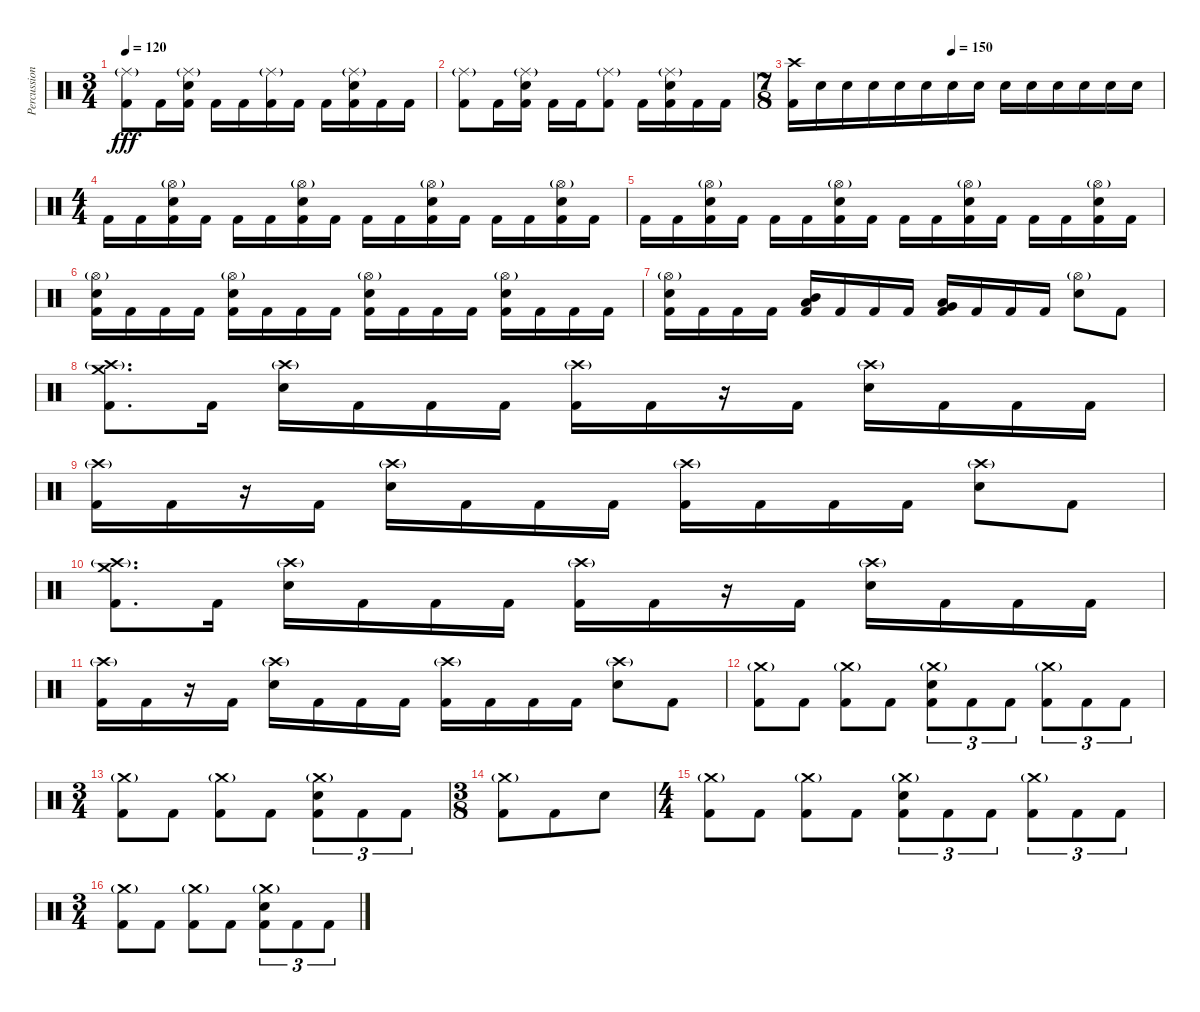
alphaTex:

\track ("Percussion" "Percussion") {instrument percussion}
\staff {score}
\articulation defaults
\ts (3 4)
\tempo 120
\clef neutral
\ks c
("Ride (middle)"{g} "Kick (hit) 2").8{dy fff} "Kick (hit) 2".16 ("Ride (middle)"{g} "Electric Snare (hit)" "Kick (hit) 2").16 "Kick (hit) 2".16 "Kick (hit) 2".16 ("Ride (middle)"{g} "Kick (hit) 2").16 "Kick (hit) 2".16 "Kick (hit) 2".16 ("Ride (middle)"{g} "Electric Snare (hit)" "Kick (hit) 2").16 "Kick (hit) 2".16 "Kick (hit) 2".16 |
("Ride (middle)"{g} "Kick (hit) 2").8 "Kick (hit) 2".16 ("Ride (middle)"{g} "Electric Snare (hit)" "Kick (hit) 2").16 "Kick (hit) 2".16 "Kick (hit) 2".16 ("Ride (middle)"{g} "Kick (hit) 2").8 "Kick (hit) 2".16 ("Ride (middle)"{g} "Electric Snare (hit)" "Kick (hit) 2").16 "Kick (hit) 2".16 "Kick (hit) 2".16 |
\ts (7 8)
\tempo (150 0.42857142857142855)
("Crash high (hit)" "Kick (hit) 2").16 "Electric Snare (hit)".16 "Electric Snare (hit)".16 "Electric Snare (hit)".16 "Electric Snare (hit)".16 "Electric Snare (hit)".16 "Electric Snare (hit)".16 "Electric Snare (hit)".16 "Electric Snare (hit)".16 "Electric Snare (hit)".16 "Electric Snare (hit)".16 "Electric Snare (hit)".16 "Electric Snare (hit)".16 "Electric Snare (hit)".16 |
\ts (4 4)
"Kick (hit) 2".16 "Kick (hit) 2".16 ("Hi-Hat (open)"{g} "Electric Snare (hit)" "Kick (hit) 2").16 "Kick (hit) 2".16 "Kick (hit) 2".16 "Kick (hit) 2".16 ("Hi-Hat (open)"{g} "Electric Snare (hit)" "Kick (hit) 2").16 "Kick (hit) 2".16 "Kick (hit) 2".16 "Kick (hit) 2".16 ("Hi-Hat (open)"{g} "Electric Snare (hit)" "Kick (hit) 2").16 "Kick (hit) 2".16 "Kick (hit) 2".16 "Kick (hit) 2".16 ("Hi-Hat (open)"{g} "Electric Snare (hit)" "Kick (hit) 2").16 "Kick (hit) 2".16 |
"Kick (hit) 2".16 "Kick (hit) 2".16 ("Hi-Hat (open)"{g} "Electric Snare (hit)" "Kick (hit) 2").16 "Kick (hit) 2".16 "Kick (hit) 2".16 "Kick (hit) 2".16 ("Hi-Hat (open)"{g} "Electric Snare (hit)" "Kick (hit) 2").16 "Kick (hit) 2".16 "Kick (hit) 2".16 "Kick (hit) 2".16 ("Hi-Hat (open)"{g} "Electric Snare (hit)" "Kick (hit) 2").16 "Kick (hit) 2".16 "Kick (hit) 2".16 "Kick (hit) 2".16 ("Hi-Hat (open)"{g} "Electric Snare (hit)" "Kick (hit) 2").16 "Kick (hit) 2".16 |
("Hi-Hat (open)"{g} "Electric Snare (hit)" "Kick (hit) 2").16 "Kick (hit) 2".16 "Kick (hit) 2".16 "Kick (hit) 2".16 ("Hi-Hat (open)"{g} "Electric Snare (hit)" "Kick (hit) 2").16 "Kick (hit) 2".16 "Kick (hit) 2".16 "Kick (hit) 2".16 ("Hi-Hat (open)"{g} "Electric Snare (hit)" "Kick (hit) 2").16 "Kick (hit) 2".16 "Kick (hit) 2".16 "Kick (hit) 2".16 ("Hi-Hat (open)"{g} "Electric Snare (hit)" "Kick (hit) 2").16 "Kick (hit) 2".16 "Kick (hit) 2".16 "Kick (hit) 2".16 |
("Hi-Hat (open)"{g} "Electric Snare (hit)" "Kick (hit) 2").16 "Kick (hit) 2".16 "Kick (hit) 2".16 "Kick (hit) 2".16 ("Mid Tom (hit)" "Low Tom (hit)" "Kick (hit) 2").16 "Kick (hit) 2".16 "Kick (hit) 2".16 "Kick (hit) 2".16 ("Low Tom (hit)" "Very Low Tom (hit)" "Kick (hit) 2").16 "Kick (hit) 2".16 "Kick (hit) 2".16 "Kick (hit) 2".16 ("Hi-Hat (open)"{g} "Electric Snare (hit)").8 "Kick (hit) 2".8 |
("Crash high (hit)"{g} "Crash medium (hit)" "Kick (hit) 2").8{d} "Kick (hit) 2".16 ("Crash high (hit)"{g} "Electric Snare (hit)").16 "Kick (hit) 2".16 "Kick (hit) 2".16 "Kick (hit) 2".16 ("Crash high (hit)"{g} "Kick (hit) 2").16 "Kick (hit) 2".16 r.16 "Kick (hit) 2".16 ("Crash high (hit)"{g} "Electric Snare (hit)").16 "Kick (hit) 2".16 "Kick (hit) 2".16 "Kick (hit) 2".16 |
("Crash high (hit)"{g} "Kick (hit) 2").16 "Kick (hit) 2".16 r.16 "Kick (hit) 2".16 ("Crash high (hit)"{g} "Electric Snare (hit)").16 "Kick (hit) 2".16 "Kick (hit) 2".16 "Kick (hit) 2".16 ("Crash high (hit)"{g} "Kick (hit) 2").16 "Kick (hit) 2".16 "Kick (hit) 2".16 "Kick (hit) 2".16 ("Crash high (hit)"{g} "Electric Snare (hit)").8 "Kick (hit) 2".8 |
("Crash high (hit)"{g} "Crash medium (hit)" "Kick (hit) 2").8{d} "Kick (hit) 2".16 ("Crash high (hit)"{g} "Electric Snare (hit)").16 "Kick (hit) 2".16 "Kick (hit) 2".16 "Kick (hit) 2".16 ("Crash high (hit)"{g} "Kick (hit) 2").16 "Kick (hit) 2".16 r.16 "Kick (hit) 2".16 ("Crash high (hit)"{g} "Electric Snare (hit)").16 "Kick (hit) 2".16 "Kick (hit) 2".16 "Kick (hit) 2".16 |
("Crash high (hit)"{g} "Kick (hit) 2").16 "Kick (hit) 2".16 r.16 "Kick (hit) 2".16 ("Crash high (hit)"{g} "Electric Snare (hit)").16 "Kick (hit) 2".16 "Kick (hit) 2".16 "Kick (hit) 2".16 ("Crash high (hit)"{g} "Kick (hit) 2").16 "Kick (hit) 2".16 "Kick (hit) 2".16 "Kick (hit) 2".16 ("Crash high (hit)"{g} "Electric Snare (hit)").8 "Kick (hit) 2".8 |
("Crash medium (hit)"{g} "Kick (hit) 2").8 "Kick (hit) 2".8 ("Crash medium (hit)"{g} "Kick (hit) 2").8 "Kick (hit) 2".8 ("Crash medium (hit)"{g} "Electric Snare (hit)" "Kick (hit) 2").8{tu (3 2)} "Kick (hit) 2".8{tu (3 2)} "Kick (hit) 2".8{tu (3 2)} ("Crash medium (hit)"{g} "Kick (hit) 2").8{tu (3 2)} "Kick (hit) 2".8{tu (3 2)} "Kick (hit) 2".8{tu (3 2)} |
\ts (3 4)
("Crash medium (hit)"{g} "Kick (hit) 2").8 "Kick (hit) 2".8 ("Crash medium (hit)"{g} "Kick (hit) 2").8 "Kick (hit) 2".8 ("Crash medium (hit)"{g} "Electric Snare (hit)" "Kick (hit) 2").8{tu (3 2)} "Kick (hit) 2".8{tu (3 2)} "Kick (hit) 2".8{tu (3 2)} |
\ts (3 8)
("Crash medium (hit)"{g} "Kick (hit) 2").8 "Kick (hit) 2".8 "Electric Snare (hit)".8 |
\ts (4 4)
("Crash medium (hit)"{g} "Kick (hit) 2").8 "Kick (hit) 2".8 ("Crash medium (hit)"{g} "Kick (hit) 2").8 "Kick (hit) 2".8 ("Crash medium (hit)"{g} "Electric Snare (hit)" "Kick (hit) 2").8{tu (3 2)} "Kick (hit) 2".8{tu (3 2)} "Kick (hit) 2".8{tu (3 2)} ("Crash medium (hit)"{g} "Kick (hit) 2").8{tu (3 2)} "Kick (hit) 2".8{tu (3 2)} "Kick (hit) 2".8{tu (3 2)} |
\ts (3 4)
("Crash medium (hit)"{g} "Kick (hit) 2").8 "Kick (hit) 2".8 ("Crash medium (hit)"{g} "Kick (hit) 2").8 "Kick (hit) 2".8 ("Crash medium (hit)"{g} "Electric Snare (hit)" "Kick (hit) 2").8{tu (3 2)} "Kick (hit) 2".8{tu (3 2)} "Kick (hit) 2".8{tu (3 2)}
